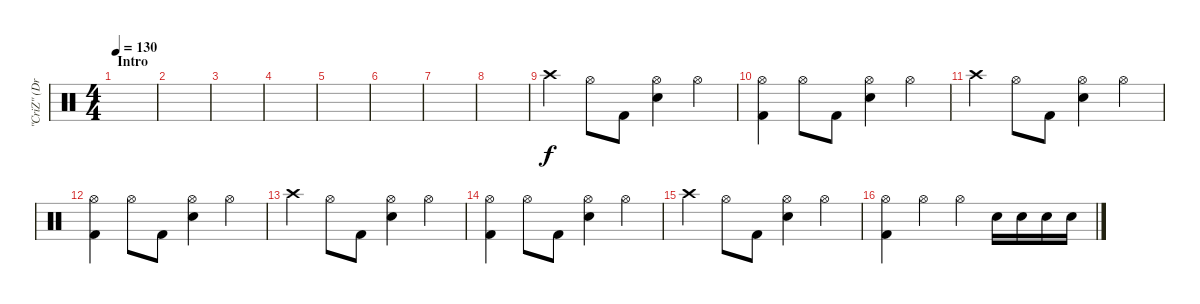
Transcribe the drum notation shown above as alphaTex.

\track ("\"CriZ\" (Drums/Percussion)" "\"CriZ\" (Dr") {instrument percussion}
\staff {score}
\articulation defaults
\ts (4 4)
\section ("" "Intro")
\tempo 130
\clef neutral
\ks c
|
|
|
|
|
|
|
|
"Crash high (hit)".4 "Hi-Hat (open)".8 "Kick (hit) 2".8 ("Hi-Hat (open)" "Snare (hit) 2").4 "Hi-Hat (open)".4 |
("Hi-Hat (open)" "Kick (hit) 2").4 "Hi-Hat (open)".8 "Kick (hit) 2".8 ("Hi-Hat (open)" "Snare (hit) 2").4 "Hi-Hat (open)".4 |
"Crash high (hit)".4 "Hi-Hat (open)".8 "Kick (hit) 2".8 ("Hi-Hat (open)" "Snare (hit) 2").4 "Hi-Hat (open)".4 |
("Hi-Hat (open)" "Kick (hit) 2").4 "Hi-Hat (open)".8 "Kick (hit) 2".8 ("Hi-Hat (open)" "Snare (hit) 2").4 "Hi-Hat (open)".4 |
"Crash high (hit)".4 "Hi-Hat (open)".8 "Kick (hit) 2".8 ("Hi-Hat (open)" "Snare (hit) 2").4 "Hi-Hat (open)".4 |
("Hi-Hat (open)" "Kick (hit) 2").4 "Hi-Hat (open)".8 "Kick (hit) 2".8 ("Hi-Hat (open)" "Snare (hit) 2").4 "Hi-Hat (open)".4 |
"Crash high (hit)".4 "Hi-Hat (open)".8 "Kick (hit) 2".8 ("Hi-Hat (open)" "Snare (hit) 2").4 "Hi-Hat (open)".4 |
("Hi-Hat (open)" "Kick (hit) 2").4 "Hi-Hat (open)".4 "Hi-Hat (open)".4 "Snare (hit) 2".16 "Snare (hit) 2".16 "Snare (hit) 2".16 "Snare (hit) 2".16
